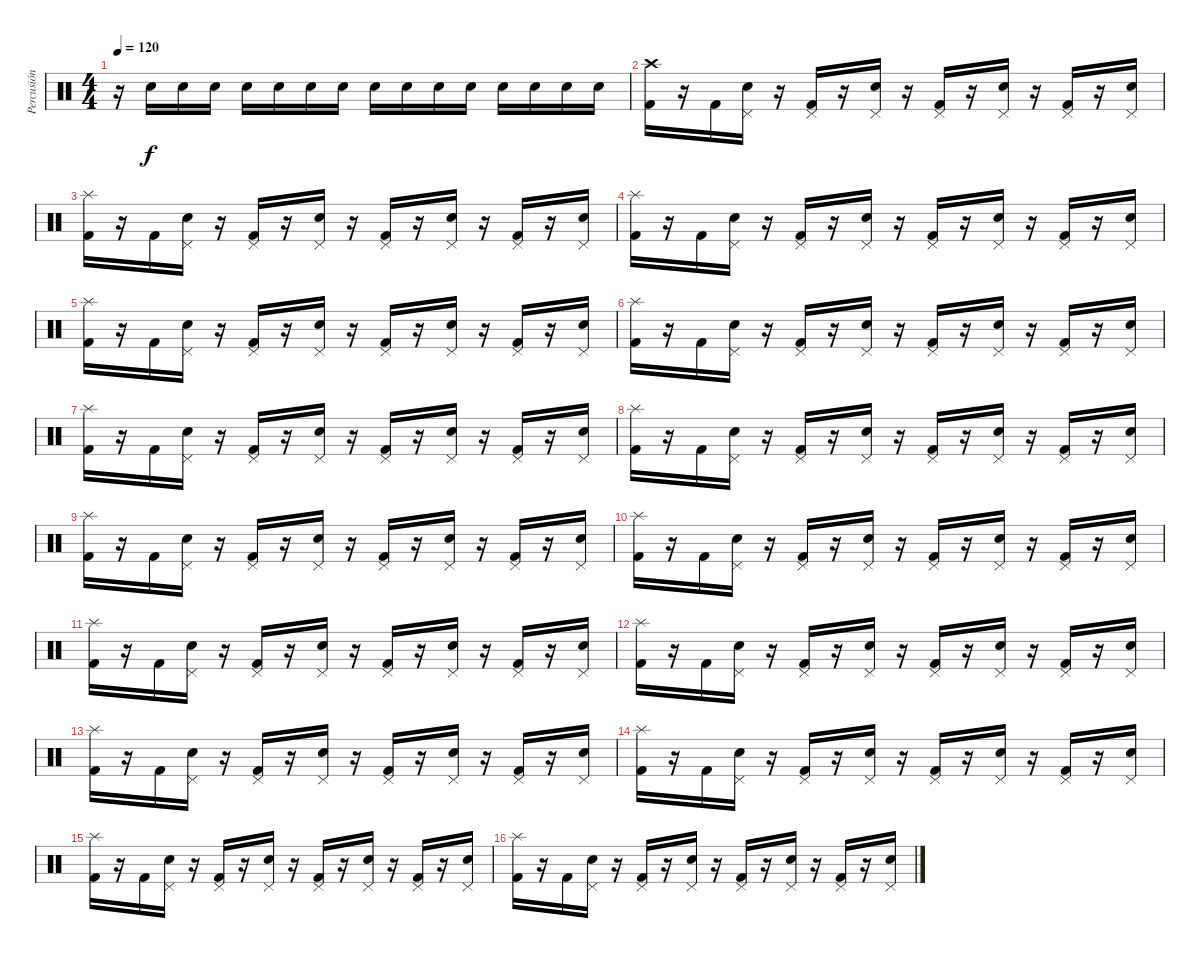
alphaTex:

\track ("Percusión" "Percusión") {instrument percussion}
\staff {score}
\articulation defaults
\ts (4 4)
\tempo 120
\clef neutral
\ks c
r.16{dy f} "Snare (hit) 2".16 "Snare (hit) 2".16 "Snare (hit) 2".16 "Snare (hit) 2".16 "Snare (hit) 2".16 "Snare (hit) 2".16 "Snare (hit) 2".16 "Snare (hit) 2".16 "Snare (hit) 2".16 "Snare (hit) 2".16 "Snare (hit) 2".16 "Snare (hit) 2".16 "Snare (hit) 2".16 "Snare (hit) 2".16 "Snare (hit) 2".16 |
("Crash high (hit)" "Kick (hit) 2").16 r.16 "Kick (hit) 2".16 ("Pedal Hi-Hat (hit)" "Snare (hit) 2").16 r.16 ("Pedal Hi-Hat (hit)" "Kick (hit) 2").16 r.16 ("Pedal Hi-Hat (hit)" "Snare (hit) 2").16 r.16 ("Pedal Hi-Hat (hit)" "Kick (hit) 2").16 r.16 ("Pedal Hi-Hat (hit)" "Snare (hit) 2").16 r.16 ("Pedal Hi-Hat (hit)" "Kick (hit) 2").16 r.16 ("Pedal Hi-Hat (hit)" "Snare (hit) 2").16 |
("Splash (hit)" "Kick (hit) 2").16 r.16 "Kick (hit) 2".16 ("Pedal Hi-Hat (hit)" "Snare (hit) 2").16 r.16 ("Pedal Hi-Hat (hit)" "Kick (hit) 2").16 r.16 ("Pedal Hi-Hat (hit)" "Snare (hit) 2").16 r.16 ("Pedal Hi-Hat (hit)" "Kick (hit) 2").16 r.16 ("Pedal Hi-Hat (hit)" "Snare (hit) 2").16 r.16 ("Pedal Hi-Hat (hit)" "Kick (hit) 2").16 r.16 ("Pedal Hi-Hat (hit)" "Snare (hit) 2").16 |
("Splash (hit)" "Kick (hit) 2").16 r.16 "Kick (hit) 2".16 ("Pedal Hi-Hat (hit)" "Snare (hit) 2").16 r.16 ("Pedal Hi-Hat (hit)" "Kick (hit) 2").16 r.16 ("Pedal Hi-Hat (hit)" "Snare (hit) 2").16 r.16 ("Pedal Hi-Hat (hit)" "Kick (hit) 2").16 r.16 ("Pedal Hi-Hat (hit)" "Snare (hit) 2").16 r.16 ("Pedal Hi-Hat (hit)" "Kick (hit) 2").16 r.16 ("Pedal Hi-Hat (hit)" "Snare (hit) 2").16 |
("Splash (hit)" "Kick (hit) 2").16 r.16 "Kick (hit) 2".16 ("Pedal Hi-Hat (hit)" "Snare (hit) 2").16 r.16 ("Pedal Hi-Hat (hit)" "Kick (hit) 2").16 r.16 ("Pedal Hi-Hat (hit)" "Snare (hit) 2").16 r.16 ("Pedal Hi-Hat (hit)" "Kick (hit) 2").16 r.16 ("Pedal Hi-Hat (hit)" "Snare (hit) 2").16 r.16 ("Pedal Hi-Hat (hit)" "Kick (hit) 2").16 r.16 ("Pedal Hi-Hat (hit)" "Snare (hit) 2").16 |
("Splash (hit)" "Kick (hit) 2").16 r.16 "Kick (hit) 2".16 ("Pedal Hi-Hat (hit)" "Snare (hit) 2").16 r.16 ("Pedal Hi-Hat (hit)" "Kick (hit) 2").16 r.16 ("Pedal Hi-Hat (hit)" "Snare (hit) 2").16 r.16 ("Pedal Hi-Hat (hit)" "Kick (hit) 2").16 r.16 ("Pedal Hi-Hat (hit)" "Snare (hit) 2").16 r.16 ("Pedal Hi-Hat (hit)" "Kick (hit) 2").16 r.16 ("Pedal Hi-Hat (hit)" "Snare (hit) 2").16 |
("Splash (hit)" "Kick (hit) 2").16 r.16 "Kick (hit) 2".16 ("Pedal Hi-Hat (hit)" "Snare (hit) 2").16 r.16 ("Pedal Hi-Hat (hit)" "Kick (hit) 2").16 r.16 ("Pedal Hi-Hat (hit)" "Snare (hit) 2").16 r.16 ("Pedal Hi-Hat (hit)" "Kick (hit) 2").16 r.16 ("Pedal Hi-Hat (hit)" "Snare (hit) 2").16 r.16 ("Pedal Hi-Hat (hit)" "Kick (hit) 2").16 r.16 ("Pedal Hi-Hat (hit)" "Snare (hit) 2").16 |
("Splash (hit)" "Kick (hit) 2").16 r.16 "Kick (hit) 2".16 ("Pedal Hi-Hat (hit)" "Snare (hit) 2").16 r.16 ("Pedal Hi-Hat (hit)" "Kick (hit) 2").16 r.16 ("Pedal Hi-Hat (hit)" "Snare (hit) 2").16 r.16 ("Pedal Hi-Hat (hit)" "Kick (hit) 2").16 r.16 ("Pedal Hi-Hat (hit)" "Snare (hit) 2").16 r.16 ("Pedal Hi-Hat (hit)" "Kick (hit) 2").16 r.16 ("Pedal Hi-Hat (hit)" "Snare (hit) 2").16 |
("Splash (hit)" "Kick (hit) 2").16 r.16 "Kick (hit) 2".16 ("Pedal Hi-Hat (hit)" "Snare (hit) 2").16 r.16 ("Pedal Hi-Hat (hit)" "Kick (hit) 2").16 r.16 ("Pedal Hi-Hat (hit)" "Snare (hit) 2").16 r.16 ("Pedal Hi-Hat (hit)" "Kick (hit) 2").16 r.16 ("Pedal Hi-Hat (hit)" "Snare (hit) 2").16 r.16 ("Pedal Hi-Hat (hit)" "Kick (hit) 2").16 r.16 ("Pedal Hi-Hat (hit)" "Snare (hit) 2").16 |
("Splash (hit)" "Kick (hit) 2").16 r.16 "Kick (hit) 2".16 ("Pedal Hi-Hat (hit)" "Snare (hit) 2").16 r.16 ("Pedal Hi-Hat (hit)" "Kick (hit) 2").16 r.16 ("Pedal Hi-Hat (hit)" "Snare (hit) 2").16 r.16 ("Pedal Hi-Hat (hit)" "Kick (hit) 2").16 r.16 ("Pedal Hi-Hat (hit)" "Snare (hit) 2").16 r.16 ("Pedal Hi-Hat (hit)" "Kick (hit) 2").16 r.16 ("Pedal Hi-Hat (hit)" "Snare (hit) 2").16 |
("Splash (hit)" "Kick (hit) 2").16 r.16 "Kick (hit) 2".16 ("Pedal Hi-Hat (hit)" "Snare (hit) 2").16 r.16 ("Pedal Hi-Hat (hit)" "Kick (hit) 2").16 r.16 ("Pedal Hi-Hat (hit)" "Snare (hit) 2").16 r.16 ("Pedal Hi-Hat (hit)" "Kick (hit) 2").16 r.16 ("Pedal Hi-Hat (hit)" "Snare (hit) 2").16 r.16 ("Pedal Hi-Hat (hit)" "Kick (hit) 2").16 r.16 ("Pedal Hi-Hat (hit)" "Snare (hit) 2").16 |
("Splash (hit)" "Kick (hit) 2").16 r.16 "Kick (hit) 2".16 ("Pedal Hi-Hat (hit)" "Snare (hit) 2").16 r.16 ("Pedal Hi-Hat (hit)" "Kick (hit) 2").16 r.16 ("Pedal Hi-Hat (hit)" "Snare (hit) 2").16 r.16 ("Pedal Hi-Hat (hit)" "Kick (hit) 2").16 r.16 ("Pedal Hi-Hat (hit)" "Snare (hit) 2").16 r.16 ("Pedal Hi-Hat (hit)" "Kick (hit) 2").16 r.16 ("Pedal Hi-Hat (hit)" "Snare (hit) 2").16 |
("Splash (hit)" "Kick (hit) 2").16 r.16 "Kick (hit) 2".16 ("Pedal Hi-Hat (hit)" "Snare (hit) 2").16 r.16 ("Pedal Hi-Hat (hit)" "Kick (hit) 2").16 r.16 ("Pedal Hi-Hat (hit)" "Snare (hit) 2").16 r.16 ("Pedal Hi-Hat (hit)" "Kick (hit) 2").16 r.16 ("Pedal Hi-Hat (hit)" "Snare (hit) 2").16 r.16 ("Pedal Hi-Hat (hit)" "Kick (hit) 2").16 r.16 ("Pedal Hi-Hat (hit)" "Snare (hit) 2").16 |
("Splash (hit)" "Kick (hit) 2").16 r.16 "Kick (hit) 2".16 ("Pedal Hi-Hat (hit)" "Snare (hit) 2").16 r.16 ("Pedal Hi-Hat (hit)" "Kick (hit) 2").16 r.16 ("Pedal Hi-Hat (hit)" "Snare (hit) 2").16 r.16 ("Pedal Hi-Hat (hit)" "Kick (hit) 2").16 r.16 ("Pedal Hi-Hat (hit)" "Snare (hit) 2").16 r.16 ("Pedal Hi-Hat (hit)" "Kick (hit) 2").16 r.16 ("Pedal Hi-Hat (hit)" "Snare (hit) 2").16 |
("Splash (hit)" "Kick (hit) 2").16 r.16 "Kick (hit) 2".16 ("Pedal Hi-Hat (hit)" "Snare (hit) 2").16 r.16 ("Pedal Hi-Hat (hit)" "Kick (hit) 2").16 r.16 ("Pedal Hi-Hat (hit)" "Snare (hit) 2").16 r.16 ("Pedal Hi-Hat (hit)" "Kick (hit) 2").16 r.16 ("Pedal Hi-Hat (hit)" "Snare (hit) 2").16 r.16 ("Pedal Hi-Hat (hit)" "Kick (hit) 2").16 r.16 ("Pedal Hi-Hat (hit)" "Snare (hit) 2").16 |
("Splash (hit)" "Kick (hit) 2").16 r.16 "Kick (hit) 2".16 ("Pedal Hi-Hat (hit)" "Snare (hit) 2").16 r.16 ("Pedal Hi-Hat (hit)" "Kick (hit) 2").16 r.16 ("Pedal Hi-Hat (hit)" "Snare (hit) 2").16 r.16 ("Pedal Hi-Hat (hit)" "Kick (hit) 2").16 r.16 ("Pedal Hi-Hat (hit)" "Snare (hit) 2").16 r.16 ("Pedal Hi-Hat (hit)" "Kick (hit) 2").16 r.16 ("Pedal Hi-Hat (hit)" "Snare (hit) 2").16
